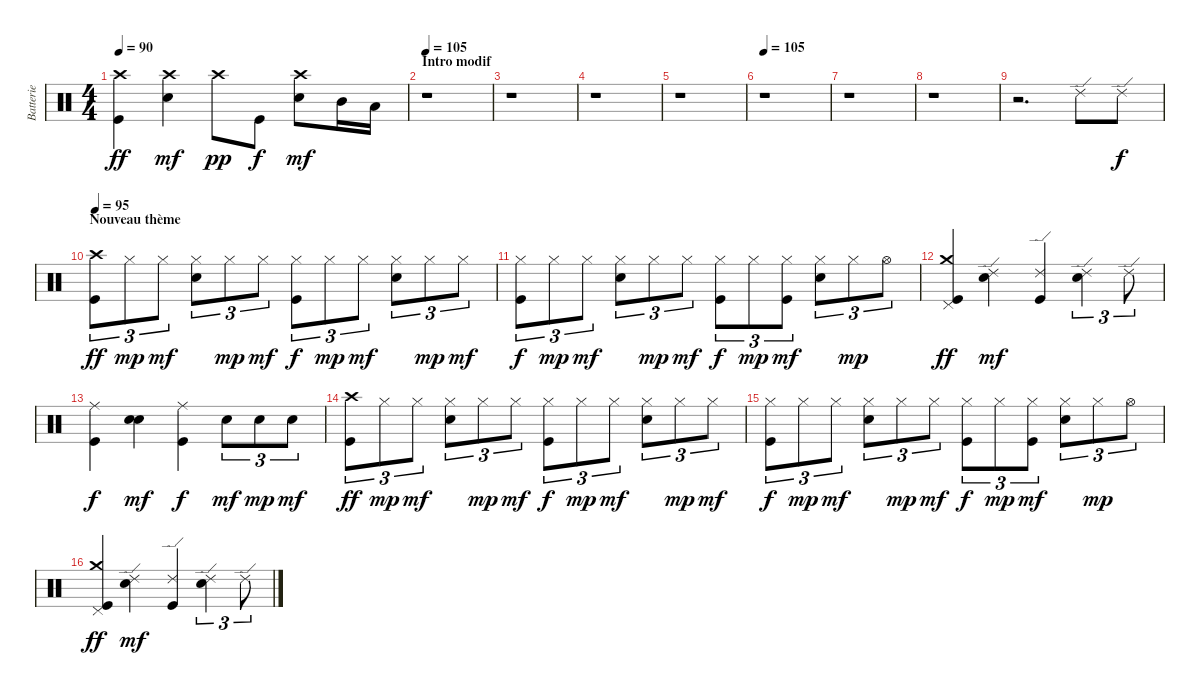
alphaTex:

\track ("Batterie" "Batterie") {instrument percussion}
\staff {score}
\articulation defaults
\ts (4 4)
\tempo 90
\clef neutral
\ks c
("Crash high (hit)" "Kick (hit)").4{dy ff} ("Crash high (hit)" "Electric Snare (hit)").4{dy mf} "Crash high (hit)".8{dy pp} "Kick (hit)".8{dy f} ("Crash high (hit)" "Electric Snare (hit)").8{dy mf} "Mid Tom (hit)".16 "Low Tom (hit)".16 |
\section ("" "Intro modif")
\tempo 105
r.1 |
r.1 |
r.1 |
r.1 |
\tempo 105
r.1 |
r.1 |
r.1 |
r.2{d} "Ride (edge) 2".8 "Ride (edge) 2".8{dy f} |
\section ("" "Nouveau thème")
\tempo 95
("Crash high (hit)" "Kick (hit)").8{tu (3 2) dy ff} "Hi-Hat (closed)".8{tu (3 2) dy mp} "Hi-Hat (closed)".8{tu (3 2) dy mf} ("Hi-Hat (closed)" "Electric Snare (hit)").8{tu (3 2)} "Hi-Hat (closed)".8{tu (3 2) dy mp} "Hi-Hat (closed)".8{tu (3 2) dy mf} ("Hi-Hat (closed)" "Kick (hit)").8{tu (3 2) dy f} "Hi-Hat (closed)".8{tu (3 2) dy mp} "Hi-Hat (closed)".8{tu (3 2) dy mf} ("Hi-Hat (closed)" "Electric Snare (hit)").8{tu (3 2)} "Hi-Hat (closed)".8{tu (3 2) dy mp} "Hi-Hat (closed)".8{tu (3 2) dy mf} |
("Hi-Hat (closed)" "Kick (hit)").8{tu (3 2) dy f} "Hi-Hat (closed)".8{tu (3 2) dy mp} "Hi-Hat (closed)".8{tu (3 2) dy mf} ("Hi-Hat (closed)" "Electric Snare (hit)").8{tu (3 2)} "Hi-Hat (closed)".8{tu (3 2) dy mp} "Hi-Hat (closed)".8{tu (3 2) dy mf} ("Hi-Hat (closed)" "Kick (hit)").8{tu (3 2) dy f} "Hi-Hat (closed)".8{tu (3 2) dy mp} ("Hi-Hat (closed)" "Kick (hit)").8{tu (3 2) dy mf} ("Hi-Hat (closed)" "Electric Snare (hit)").8{tu (3 2)} "Hi-Hat (closed)".8{tu (3 2) dy mp} "Hi-Hat (open)".8{tu (3 2)} |
("Crash medium (hit)" "Pedal Hi-Hat (hit)" "Kick (hit)").4{dy ff} ("Ride (edge) 2" "Electric Snare (hit)").4{dy mf} ("Ride (edge) 2" "Kick (hit)").4 ("Ride (edge) 2" "Electric Snare (hit)").4{tu (3 2)} "Ride (edge) 2".8{tu (3 2)} |
("Ride (middle)" "Kick (hit)").4{dy f} ("Electric Snare (hit)" "Electric Snare (hit)").4{bu 60 dy mf} ("Ride (middle)" "Kick (hit)").4{dy f} "Electric Snare (hit)".8{tu (3 2) dy mf} "Electric Snare (hit)".8{tu (3 2) dy mp} "Electric Snare (hit)".8{tu (3 2) dy mf} |
("Crash high (hit)" "Kick (hit)").8{tu (3 2) dy ff} "Hi-Hat (closed)".8{tu (3 2) dy mp} "Hi-Hat (closed)".8{tu (3 2) dy mf} ("Hi-Hat (closed)" "Electric Snare (hit)").8{tu (3 2)} "Hi-Hat (closed)".8{tu (3 2) dy mp} "Hi-Hat (closed)".8{tu (3 2) dy mf} ("Hi-Hat (closed)" "Kick (hit)").8{tu (3 2) dy f} "Hi-Hat (closed)".8{tu (3 2) dy mp} "Hi-Hat (closed)".8{tu (3 2) dy mf} ("Hi-Hat (closed)" "Electric Snare (hit)").8{tu (3 2)} "Hi-Hat (closed)".8{tu (3 2) dy mp} "Hi-Hat (closed)".8{tu (3 2) dy mf} |
("Hi-Hat (closed)" "Kick (hit)").8{tu (3 2) dy f} "Hi-Hat (closed)".8{tu (3 2) dy mp} "Hi-Hat (closed)".8{tu (3 2) dy mf} ("Hi-Hat (closed)" "Electric Snare (hit)").8{tu (3 2)} "Hi-Hat (closed)".8{tu (3 2) dy mp} "Hi-Hat (closed)".8{tu (3 2) dy mf} ("Hi-Hat (closed)" "Kick (hit)").8{tu (3 2) dy f} "Hi-Hat (closed)".8{tu (3 2) dy mp} ("Hi-Hat (closed)" "Kick (hit)").8{tu (3 2) dy mf} ("Hi-Hat (closed)" "Electric Snare (hit)").8{tu (3 2)} "Hi-Hat (closed)".8{tu (3 2) dy mp} "Hi-Hat (open)".8{tu (3 2)} |
("Crash medium (hit)" "Pedal Hi-Hat (hit)" "Kick (hit)").4{dy ff} ("Ride (edge) 2" "Electric Snare (hit)").4{dy mf} ("Ride (edge) 2" "Kick (hit)").4 ("Ride (edge) 2" "Electric Snare (hit)").4{tu (3 2)} "Ride (edge) 2".8{tu (3 2)}
